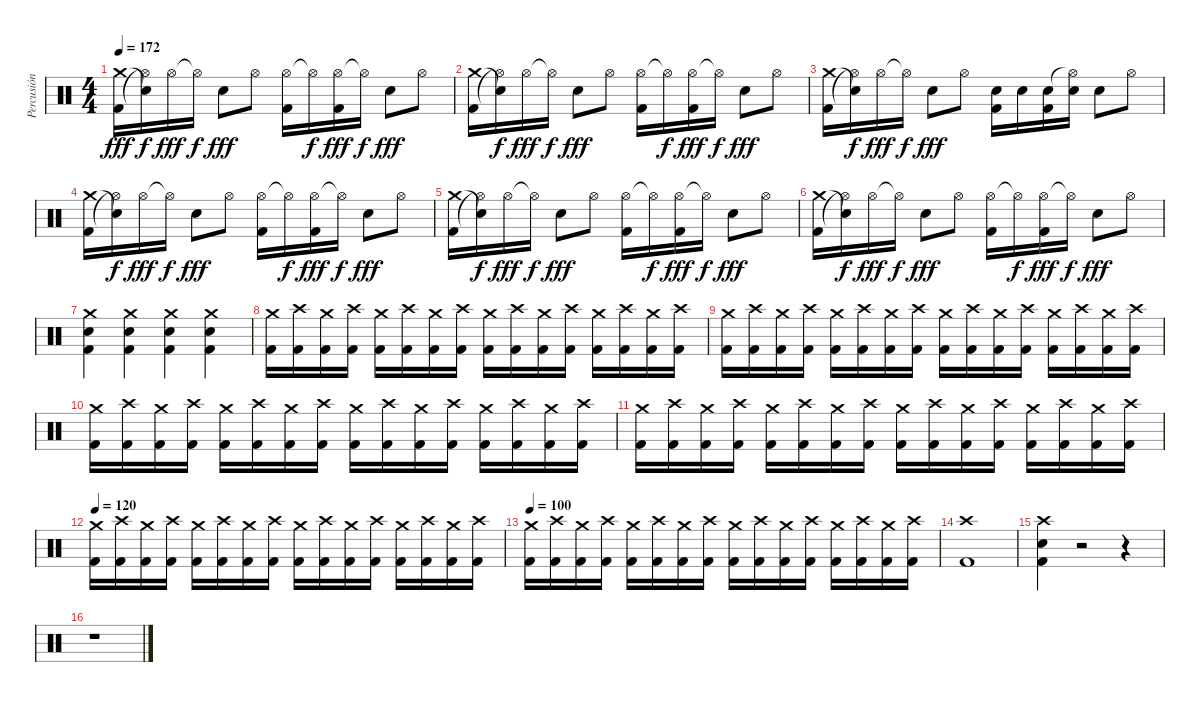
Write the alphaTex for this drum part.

\track ("Percusión" "Percusión") {instrument percussion}
\staff {score}
\articulation defaults
\ts (4 4)
\tempo 172
\clef neutral
\ks c
("Crash medium (hit)" "Kick (hit) 2").16{dy fff} ("Snare (hit)"{t} "Hi-Hat (open)"{t}).16{dy f} "Hi-Hat (open)".16{dy fff} "Hi-Hat (open)"{t}.16{dy f} "Electric Snare (hit)".8{dy fff} "Hi-Hat (open)".8 ("Hi-Hat (open)" "Kick (hit) 2").16 "Hi-Hat (open)"{t}.16{dy f} ("Hi-Hat (open)" "Kick (hit) 2").16{dy fff} "Hi-Hat (open)"{t}.16{dy f} "Electric Snare (hit)".8{dy fff} "Hi-Hat (open)".8 |
("Crash medium (hit)" "Kick (hit) 2").16 ("Snare (hit)"{t} "Hi-Hat (open)"{t}).16{dy f} "Hi-Hat (open)".16{dy fff} "Hi-Hat (open)"{t}.16{dy f} "Electric Snare (hit)".8{dy fff} "Hi-Hat (open)".8 ("Hi-Hat (open)" "Kick (hit) 2").16 "Hi-Hat (open)"{t}.16{dy f} ("Hi-Hat (open)" "Kick (hit) 2").16{dy fff} "Hi-Hat (open)"{t}.16{dy f} "Electric Snare (hit)".8{dy fff} "Hi-Hat (open)".8 |
("Crash medium (hit)" "Kick (hit) 2").16 ("Snare (hit)"{t} "Hi-Hat (open)"{t}).16{dy f} "Hi-Hat (open)".16{dy fff} "Hi-Hat (open)"{t}.16{dy f} "Electric Snare (hit)".8{dy fff} "Hi-Hat (open)".8 ("Electric Snare (hit)" "Kick (hit) 2").16 "Electric Snare (hit)".16 ("Electric Snare (hit)" "Kick (hit) 2").16 ("Hi-Hat (open)"{t} "Electric Snare (hit)").16 "Electric Snare (hit)".8 "Hi-Hat (open)".8 |
("Crash medium (hit)" "Kick (hit) 2").16 ("Snare (hit)"{t} "Hi-Hat (open)"{t}).16{dy f} "Hi-Hat (open)".16{dy fff} "Hi-Hat (open)"{t}.16{dy f} "Electric Snare (hit)".8{dy fff} "Hi-Hat (open)".8 ("Hi-Hat (open)" "Kick (hit) 2").16 "Hi-Hat (open)"{t}.16{dy f} ("Hi-Hat (open)" "Kick (hit) 2").16{dy fff} "Hi-Hat (open)"{t}.16{dy f} "Electric Snare (hit)".8{dy fff} "Hi-Hat (open)".8 |
("Crash medium (hit)" "Kick (hit) 2").16 ("Snare (hit)"{t} "Hi-Hat (open)"{t}).16{dy f} "Hi-Hat (open)".16{dy fff} "Hi-Hat (open)"{t}.16{dy f} "Electric Snare (hit)".8{dy fff} "Hi-Hat (open)".8 ("Hi-Hat (open)" "Kick (hit) 2").16 "Hi-Hat (open)"{t}.16{dy f} ("Hi-Hat (open)" "Kick (hit) 2").16{dy fff} "Hi-Hat (open)"{t}.16{dy f} "Electric Snare (hit)".8{dy fff} "Hi-Hat (open)".8 |
("Crash medium (hit)" "Kick (hit) 2").16 ("Snare (hit)"{t} "Hi-Hat (open)"{t}).16{dy f} "Hi-Hat (open)".16{dy fff} "Hi-Hat (open)"{t}.16{dy f} "Electric Snare (hit)".8{dy fff} "Hi-Hat (open)".8 ("Hi-Hat (open)" "Kick (hit) 2").16 "Hi-Hat (open)"{t}.16{dy f} ("Hi-Hat (open)" "Kick (hit) 2").16{dy fff} "Hi-Hat (open)"{t}.16{dy f} "Electric Snare (hit)".8{dy fff} "Hi-Hat (open)".8 |
("Crash medium (hit)" "Electric Snare (hit)" "Kick (hit) 2").4 ("Crash medium (hit)" "Electric Snare (hit)" "Kick (hit) 2").4 ("Crash medium (hit)" "Electric Snare (hit)" "Kick (hit) 2").4 ("Crash medium (hit)" "Electric Snare (hit)" "Kick (hit) 2").4 |
("Crash medium (hit)" "Kick (hit) 2").16 ("Crash high (hit)" "Kick (hit) 2").16 ("Crash medium (hit)" "Kick (hit) 2").16 ("Crash high (hit)" "Kick (hit) 2").16 ("Crash medium (hit)" "Kick (hit) 2").16 ("Crash high (hit)" "Kick (hit) 2").16 ("Crash medium (hit)" "Kick (hit) 2").16 ("Crash high (hit)" "Kick (hit) 2").16 ("Crash medium (hit)" "Kick (hit) 2").16 ("Crash high (hit)" "Kick (hit) 2").16 ("Crash medium (hit)" "Kick (hit) 2").16 ("Crash high (hit)" "Kick (hit) 2").16 ("Crash medium (hit)" "Kick (hit) 2").16 ("Crash high (hit)" "Kick (hit) 2").16 ("Crash medium (hit)" "Kick (hit) 2").16 ("Crash high (hit)" "Kick (hit) 2").16 |
("Crash medium (hit)" "Kick (hit) 2").16 ("Crash high (hit)" "Kick (hit) 2").16 ("Crash medium (hit)" "Kick (hit) 2").16 ("Crash high (hit)" "Kick (hit) 2").16 ("Crash medium (hit)" "Kick (hit) 2").16 ("Crash high (hit)" "Kick (hit) 2").16 ("Crash medium (hit)" "Kick (hit) 2").16 ("Crash high (hit)" "Kick (hit) 2").16 ("Crash medium (hit)" "Kick (hit) 2").16 ("Crash high (hit)" "Kick (hit) 2").16 ("Crash medium (hit)" "Kick (hit) 2").16 ("Crash high (hit)" "Kick (hit) 2").16 ("Crash medium (hit)" "Kick (hit) 2").16 ("Crash high (hit)" "Kick (hit) 2").16 ("Crash medium (hit)" "Kick (hit) 2").16 ("Crash high (hit)" "Kick (hit) 2").16 |
("Crash medium (hit)" "Kick (hit) 2").16 ("Crash high (hit)" "Kick (hit) 2").16 ("Crash medium (hit)" "Kick (hit) 2").16 ("Crash high (hit)" "Kick (hit) 2").16 ("Crash medium (hit)" "Kick (hit) 2").16 ("Crash high (hit)" "Kick (hit) 2").16 ("Crash medium (hit)" "Kick (hit) 2").16 ("Crash high (hit)" "Kick (hit) 2").16 ("Crash medium (hit)" "Kick (hit) 2").16 ("Crash high (hit)" "Kick (hit) 2").16 ("Crash medium (hit)" "Kick (hit) 2").16 ("Crash high (hit)" "Kick (hit) 2").16 ("Crash medium (hit)" "Kick (hit) 2").16 ("Crash high (hit)" "Kick (hit) 2").16 ("Crash medium (hit)" "Kick (hit) 2").16 ("Crash high (hit)" "Kick (hit) 2").16 |
("Crash medium (hit)" "Kick (hit) 2").16 ("Crash high (hit)" "Kick (hit) 2").16 ("Crash medium (hit)" "Kick (hit) 2").16 ("Crash high (hit)" "Kick (hit) 2").16 ("Crash medium (hit)" "Kick (hit) 2").16 ("Crash high (hit)" "Kick (hit) 2").16 ("Crash medium (hit)" "Kick (hit) 2").16 ("Crash high (hit)" "Kick (hit) 2").16 ("Crash medium (hit)" "Kick (hit) 2").16 ("Crash high (hit)" "Kick (hit) 2").16 ("Crash medium (hit)" "Kick (hit) 2").16 ("Crash high (hit)" "Kick (hit) 2").16 ("Crash medium (hit)" "Kick (hit) 2").16 ("Crash high (hit)" "Kick (hit) 2").16 ("Crash medium (hit)" "Kick (hit) 2").16 ("Crash high (hit)" "Kick (hit) 2").16 |
\tempo 120
("Crash medium (hit)" "Kick (hit) 2").16 ("Crash high (hit)" "Kick (hit) 2").16 ("Crash medium (hit)" "Kick (hit) 2").16 ("Crash high (hit)" "Kick (hit) 2").16 ("Crash medium (hit)" "Kick (hit) 2").16 ("Crash high (hit)" "Kick (hit) 2").16 ("Crash medium (hit)" "Kick (hit) 2").16 ("Crash high (hit)" "Kick (hit) 2").16 ("Crash medium (hit)" "Kick (hit) 2").16 ("Crash high (hit)" "Kick (hit) 2").16 ("Crash medium (hit)" "Kick (hit) 2").16 ("Crash high (hit)" "Kick (hit) 2").16 ("Crash medium (hit)" "Kick (hit) 2").16 ("Crash high (hit)" "Kick (hit) 2").16 ("Crash medium (hit)" "Kick (hit) 2").16 ("Crash high (hit)" "Kick (hit) 2").16 |
\tempo 100
("Crash medium (hit)" "Kick (hit) 2").16 ("Crash high (hit)" "Kick (hit) 2").16 ("Crash medium (hit)" "Kick (hit) 2").16 ("Crash high (hit)" "Kick (hit) 2").16 ("Crash medium (hit)" "Kick (hit) 2").16 ("Crash high (hit)" "Kick (hit) 2").16 ("Crash medium (hit)" "Kick (hit) 2").16 ("Crash high (hit)" "Kick (hit) 2").16 ("Crash medium (hit)" "Kick (hit) 2").16 ("Crash high (hit)" "Kick (hit) 2").16 ("Crash medium (hit)" "Kick (hit) 2").16 ("Crash high (hit)" "Kick (hit) 2").16 ("Crash medium (hit)" "Kick (hit) 2").16 ("Crash high (hit)" "Kick (hit) 2").16 ("Crash medium (hit)" "Kick (hit) 2").16 ("Crash high (hit)" "Kick (hit) 2").16 |
("Crash high (hit)" "Kick (hit) 2").1 |
("Crash high (hit)" "Electric Snare (hit)" "Kick (hit) 2").4 r.2 r.4 |
r.1
